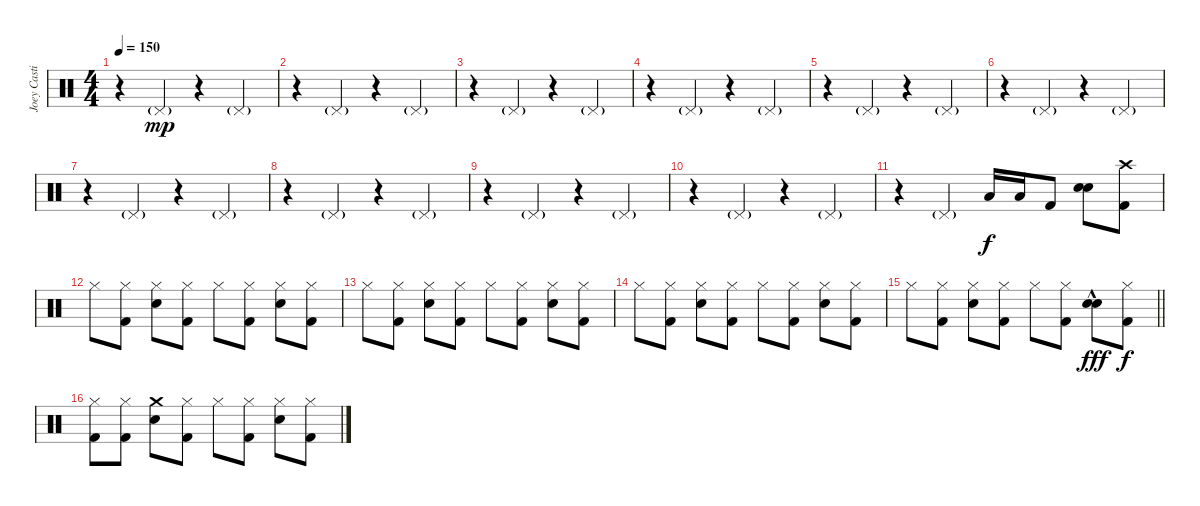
\track ("Joey Castillo" "Joey Casti") {instrument percussion}
\staff {score}
\articulation defaults
\ts (4 4)
\tempo 150
\clef neutral
\ks c
r.4{dy mp} "Pedal Hi-Hat (hit)"{g}.4 r.4 "Pedal Hi-Hat (hit)"{g}.4 |
r.4 "Pedal Hi-Hat (hit)"{g}.4 r.4 "Pedal Hi-Hat (hit)"{g}.4 |
r.4 "Pedal Hi-Hat (hit)"{g}.4 r.4 "Pedal Hi-Hat (hit)"{g}.4 |
r.4 "Pedal Hi-Hat (hit)"{g}.4 r.4 "Pedal Hi-Hat (hit)"{g}.4 |
r.4 "Pedal Hi-Hat (hit)"{g}.4 r.4 "Pedal Hi-Hat (hit)"{g}.4 |
r.4 "Pedal Hi-Hat (hit)"{g}.4 r.4 "Pedal Hi-Hat (hit)"{g}.4 |
r.4 "Pedal Hi-Hat (hit)"{g}.4 r.4 "Pedal Hi-Hat (hit)"{g}.4 |
r.4 "Pedal Hi-Hat (hit)"{g}.4 r.4 "Pedal Hi-Hat (hit)"{g}.4 |
r.4 "Pedal Hi-Hat (hit)"{g}.4 r.4 "Pedal Hi-Hat (hit)"{g}.4 |
r.4 "Pedal Hi-Hat (hit)"{g}.4 r.4 "Pedal Hi-Hat (hit)"{g}.4 |
r.4 "Pedal Hi-Hat (hit)"{g}.4 "Low Tom (hit)".16{dy f volume 16} "Low Tom (hit)".16 "Kick (hit) 2".8 ("Snare (hit) 2" "Snare (hit) 2").8{bd 240} ("Crash high (hit)" "Kick (hit) 2").8 |
"Hi-Hat (closed)".8 ("Hi-Hat (closed)" "Kick (hit) 2").8 ("Hi-Hat (closed)" "Snare (hit) 2").8 ("Hi-Hat (closed)" "Kick (hit) 2").8 "Hi-Hat (closed)".8 ("Hi-Hat (closed)" "Kick (hit) 2").8 ("Hi-Hat (closed)" "Snare (hit) 2").8 ("Hi-Hat (closed)" "Kick (hit) 2").8 |
"Hi-Hat (closed)".8 ("Hi-Hat (closed)" "Kick (hit) 2").8 ("Hi-Hat (closed)" "Snare (hit) 2").8 ("Hi-Hat (closed)" "Kick (hit) 2").8 "Hi-Hat (closed)".8 ("Hi-Hat (closed)" "Kick (hit) 2").8 ("Hi-Hat (closed)" "Snare (hit) 2").8 ("Hi-Hat (closed)" "Kick (hit) 2").8 |
"Hi-Hat (closed)".8 ("Hi-Hat (closed)" "Kick (hit) 2").8 ("Hi-Hat (closed)" "Snare (hit) 2").8 ("Hi-Hat (closed)" "Kick (hit) 2").8 "Hi-Hat (closed)".8 ("Hi-Hat (closed)" "Kick (hit) 2").8 ("Hi-Hat (closed)" "Snare (hit) 2").8 ("Hi-Hat (closed)" "Kick (hit) 2").8 |
\barLineRight lightlight "Hi-Hat (closed)".8
("Hi-Hat (closed)" "Kick (hit) 2").8 ("Hi-Hat (closed)" "Snare (hit) 2").8 ("Hi-Hat (closed)" "Kick (hit) 2").8 "Hi-Hat (closed)".8 ("Hi-Hat (closed)" "Kick (hit) 2").8 ("Snare (hit) 2"{hac} "Snare (hit) 2"{hac}).8{bd 240 dy fff} ("Hi-Hat (closed)" "Kick (hit) 2").8{dy f} |
("Hi-Hat (closed)" "Kick (hit) 2").8 ("Hi-Hat (closed)" "Kick (hit) 2").8 ("Crash medium (hit)" "Snare (hit) 2").8 ("Hi-Hat (closed)" "Kick (hit) 2").8 "Hi-Hat (closed)".8 ("Hi-Hat (closed)" "Kick (hit) 2").8 ("Hi-Hat (closed)" "Snare (hit) 2").8 ("Hi-Hat (closed)" "Kick (hit) 2").8
